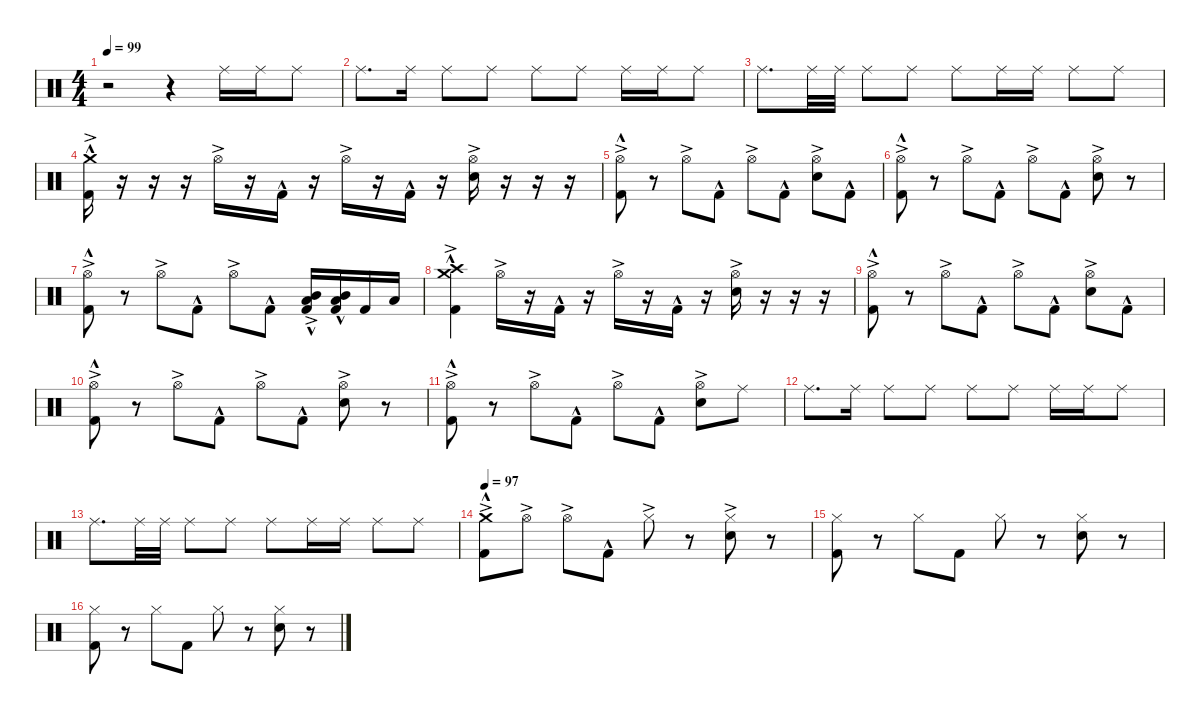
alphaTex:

\defaultSystemsLayout 4
\hideDynamics
\bracketExtendMode nobrackets
\singleTrackTrackNamePolicy hidden
\multiTrackTrackNamePolicy hidden
\firstSystemTrackNameMode fullname
\firstSystemTrackNameOrientation horizontal
\otherSystemsTrackNameOrientation horizontal
\track ("Percussion" "drm.") {instrument percussion}
\staff {score}
\articulation defaults
\ts (4 4)
\beaming (8 2 2 2 2)
\tempo 99
\clef neutral
\ks c
r.2{dy f beam Down} r.4{beam Down} "Ride (middle)".16{beam Down} "Ride (middle)".16{beam Down} "Ride (middle)".8{beam Down} |
"Ride (middle)".8{d beam Down} "Ride (middle)".16{beam Down} "Ride (middle)".8{beam Down} "Ride (middle)".8{beam Down} "Ride (middle)".8{beam Down} "Ride (middle)".8{beam Down} "Ride (middle)".16{beam Down} "Ride (middle)".16{beam Down} "Ride (middle)".8{beam Down} |
"Ride (middle)".8{d beam Down} "Ride (middle)".32{beam Down} "Ride (middle)".32{beam Down} "Ride (middle)".8{beam Down} "Ride (middle)".8{beam Down} "Ride (middle)".8{beam Down} "Ride (middle)".16{beam Down} "Ride (middle)".16{beam Down} "Ride (middle)".8{beam Down} "Ride (middle)".8{beam Down} |
("Crash medium (hit)"{hac} "Kick (hit) 2"{ac}).16{beam Down} r.16{beam Down} r.16{beam Down} r.16{beam Down} "Hi-Hat (open)"{ac}.16{beam Down} r.16{beam Down} "Kick (hit) 2"{hac}.16{beam Down} r.16{beam Down} "Hi-Hat (open)"{ac}.16{beam Down} r.16{beam Down} "Kick (hit) 2"{hac}.16{beam Down} r.16{beam Down} ("Hi-Hat (open)"{ac} "Snare (hit) 2"{ac}).16{beam Down} r.16{beam Down} r.16{beam Down} r.16{beam Down} |
("Hi-Hat (open)"{ac} "Kick (hit) 2"{hac}).8{beam Down} r.8{beam Down} "Hi-Hat (open)"{ac}.8{beam Down} "Kick (hit) 2"{hac}.8{beam Down} "Hi-Hat (open)"{ac}.8{beam Down} "Kick (hit) 2"{hac}.8{beam Down} ("Hi-Hat (open)"{ac} "Snare (hit) 2"{ac}).8{beam Down} "Kick (hit) 2"{hac}.8{beam Down} |
("Hi-Hat (open)"{ac} "Kick (hit) 2"{hac}).8{beam Down} r.8{beam Down} "Hi-Hat (open)"{ac}.8{beam Down} "Kick (hit) 2"{hac}.8{beam Down} "Hi-Hat (open)"{ac}.8{beam Down} "Kick (hit) 2"{hac}.8{beam Down} ("Hi-Hat (open)"{ac} "Snare (hit) 2"{ac}).8{beam Down} r.8{beam Down} |
("Hi-Hat (open)"{ac} "Kick (hit) 2"{hac}).8{beam Down} r.8{beam Down} "Hi-Hat (open)"{ac}.8{beam Down} "Kick (hit) 2"{hac}.8{beam Down} "Hi-Hat (open)"{ac}.8{beam Down} "Kick (hit) 2"{hac}.8{beam Down} ("Low Tom (hit)"{ac} "Mid Tom (hit)"{hac} "Kick (hit) 2").16{beam Up} ("Low Tom (hit)"{hac} "Mid Tom (hit)"{hac} "Kick (hit) 2").16{beam Up} "Kick (hit) 2".16{beam Up} "Low Tom (hit)".16{beam Up} |
("Crash medium (hit)"{hac} "Crash high (hit)"{hac} "Kick (hit) 2"{ac}).4{beam Down} "Hi-Hat (open)"{ac}.16{beam Down} r.16{beam Down} "Kick (hit) 2"{hac}.16{beam Down} r.16{beam Down} "Hi-Hat (open)"{ac}.16{beam Down} r.16{beam Down} "Kick (hit) 2"{hac}.16{beam Down} r.16{beam Down} ("Hi-Hat (open)"{ac} "Snare (hit) 2"{ac}).16{beam Down} r.16{beam Down} r.16{beam Down} r.16{beam Down} |
("Hi-Hat (open)"{ac} "Kick (hit) 2"{hac}).8{beam Down} r.8{beam Down} "Hi-Hat (open)"{ac}.8{beam Down} "Kick (hit) 2"{hac}.8{beam Down} "Hi-Hat (open)"{ac}.8{beam Down} "Kick (hit) 2"{hac}.8{beam Down} ("Hi-Hat (open)"{ac} "Snare (hit) 2"{ac}).8{beam Down} "Kick (hit) 2"{hac}.8{beam Down} |
("Hi-Hat (open)"{ac} "Kick (hit) 2"{hac}).8{beam Down} r.8{beam Down} "Hi-Hat (open)"{ac}.8{beam Down} "Kick (hit) 2"{hac}.8{beam Down} "Hi-Hat (open)"{ac}.8{beam Down} "Kick (hit) 2"{hac}.8{beam Down} ("Hi-Hat (open)"{ac} "Snare (hit) 2"{ac}).8{beam Down} r.8{beam Down} |
("Hi-Hat (open)"{ac} "Kick (hit) 2"{hac}).8{beam Down} r.8{beam Down} "Hi-Hat (open)"{ac}.8{beam Down} "Kick (hit) 2"{hac}.8{beam Down} "Hi-Hat (open)"{ac}.8{beam Down} "Kick (hit) 2"{hac}.8{beam Down} ("Hi-Hat (open)"{ac} "Snare (hit) 2"{ac}).8{beam Down} "Ride (middle)".8{beam Down} |
"Ride (middle)".8{d beam Down} "Ride (middle)".16{beam Down} "Ride (middle)".8{beam Down} "Ride (middle)".8{beam Down} "Ride (middle)".8{beam Down} "Ride (middle)".8{beam Down} "Ride (middle)".16{beam Down} "Ride (middle)".16{beam Down} "Ride (middle)".8{beam Down} |
"Ride (middle)".8{d beam Down} "Ride (middle)".32{beam Down} "Ride (middle)".32{beam Down} "Ride (middle)".8{beam Down} "Ride (middle)".8{beam Down} "Ride (middle)".8{beam Down} "Ride (middle)".16{beam Down} "Ride (middle)".16{beam Down} "Ride (middle)".8{beam Down} "Ride (middle)".8{beam Down} |
\tempo 97
("Crash medium (hit)"{ac} "Kick (hit) 2"{hac}).8{beam Down} "Hi-Hat (open)"{ac}.8{beam Down} "Hi-Hat (open)"{ac}.8{beam Down} "Kick (hit) 2"{hac}.8{beam Down} "Hi-Hat (closed)"{ac}.8{beam Down} r.8{beam Down} ("Hi-Hat (closed)"{ac} "Snare (hit) 2"{ac}).8{beam Down} r.8{beam Down} |
("Hi-Hat (closed)" "Kick (hit) 2").8{beam Down} r.8{beam Down} "Hi-Hat (closed)".8{beam Down} "Kick (hit) 2".8{beam Down} "Hi-Hat (closed)".8{beam Down} r.8{beam Down} ("Hi-Hat (closed)" "Snare (hit) 2").8{beam Down} r.8{beam Down} |
("Hi-Hat (closed)" "Kick (hit) 2").8{beam Down} r.8{beam Down} "Hi-Hat (closed)".8{beam Down} "Kick (hit) 2".8{beam Down} "Hi-Hat (closed)".8{beam Down} r.8{beam Down} ("Hi-Hat (closed)" "Snare (hit) 2").8{beam Down} r.8{beam Down}
